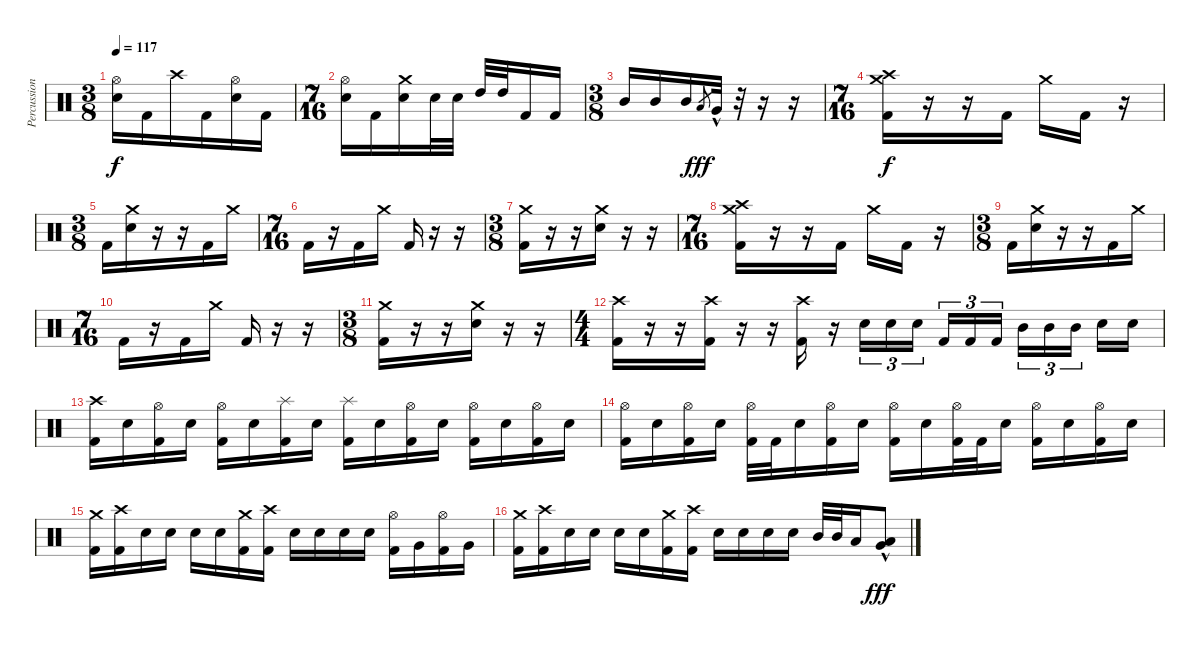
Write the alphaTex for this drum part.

\track ("Percussion" "Percussion") {instrument percussion}
\staff {score}
\articulation defaults
\ts (3 8)
\tempo 117
\clef neutral
\ks c
("Hi-Hat (open)" "Electric Snare (hit)").16{dy f} "Kick (hit) 2".16 "Crash high (hit)".16 "Kick (hit) 2".16 ("Hi-Hat (open)" "Electric Snare (hit)").16 "Kick (hit) 2".16 |
\ts (7 16)
("Hi-Hat (open)" "Electric Snare (hit)").16 "Kick (hit) 2".16 ("Crash medium (hit)" "Electric Snare (hit)").16 "Electric Snare (hit)".32 "Electric Snare (hit)".32 "High Tom (hit)".32 "High Tom (hit)".32 "Kick (hit) 2".16 "Kick (hit) 2".16 |
\ts (3 8)
"Mid Tom (hit)".16 "Mid Tom (hit)".16 "Mid Tom (hit)".16 "Low Tom (hit)".8{gr dy fff} "Very Low Tom (hit)"{hac}.32 r.32 r.16 r.16 |
\ts (7 16)
("Crash medium (hit)" "Crash high (hit)" "Kick (hit) 2").16{dy f} r.16 r.16 "Kick (hit) 2".16 "Crash medium (hit)".16 "Kick (hit) 2".16 r.16 |
\ts (3 8)
"Kick (hit) 2".16 ("Crash medium (hit)" "Electric Snare (hit)").16 r.16 r.16 "Kick (hit) 2".16 "Crash medium (hit)".16 |
\ts (7 16)
"Kick (hit) 2".16 r.16 "Kick (hit) 2".16 "Crash medium (hit)".16 "Kick (hit) 2".16 r.16 r.16 |
\ts (3 8)
("Crash medium (hit)" "Kick (hit) 2").16 r.16 r.16 ("Crash medium (hit)" "Electric Snare (hit)").16 r.16 r.16 |
\ts (7 16)
("Crash medium (hit)" "Crash high (hit)" "Kick (hit) 2").16 r.16 r.16 "Kick (hit) 2".16 "Crash medium (hit)".16 "Kick (hit) 2".16 r.16 |
\ts (3 8)
"Kick (hit) 2".16 ("Crash medium (hit)" "Electric Snare (hit)").16 r.16 r.16 "Kick (hit) 2".16 "Crash medium (hit)".16 |
\ts (7 16)
"Kick (hit) 2".16 r.16 "Kick (hit) 2".16 "Crash medium (hit)".16 "Kick (hit) 2".16 r.16 r.16 |
\ts (3 8)
("Crash medium (hit)" "Kick (hit) 2").16 r.16 r.16 ("Crash medium (hit)" "Electric Snare (hit)").16 r.16 r.16 |
\ts (4 4)
("Crash high (hit)" "Kick (hit) 2").16 r.16{volume 0} r.16 ("Crash high (hit)" "Kick (hit) 2").16{volume 13} r.16{volume 0} r.16 ("Crash high (hit)" "Kick (hit) 2").16{volume 13} r.16{volume 0} "Electric Snare (hit)".16{tu (3 2) volume 13} "Electric Snare (hit)".16{tu (3 2)} "Electric Snare (hit)".16{tu (3 2) beam splitsecondary} "Kick (hit) 2".16{tu (3 2)} "Kick (hit) 2".16{tu (3 2)} "Kick (hit) 2".16{tu (3 2)} "Mid Tom (hit)".16{tu (3 2)} "Mid Tom (hit)".16{tu (3 2)} "Mid Tom (hit)".16{tu (3 2) beam splitsecondary} "Electric Snare (hit)".16 "Electric Snare (hit)".16 |
("Crash high (hit)" "Kick (hit) 2").16{volume 13} "Electric Snare (hit)".16 ("Hi-Hat (open)" "Kick (hit) 2").16 "Electric Snare (hit)".16 ("Hi-Hat (open)" "Kick (hit) 2").16 "Electric Snare (hit)".16 ("Splash (hit)" "Kick (hit) 2").16 "Electric Snare (hit)".16 ("Splash (hit)" "Kick (hit) 2").16 "Electric Snare (hit)".16 ("Hi-Hat (open)" "Kick (hit) 2").16 "Electric Snare (hit)".16 ("Hi-Hat (open)" "Kick (hit) 2").16 "Electric Snare (hit)".16 ("Hi-Hat (open)" "Kick (hit) 2").16 "Electric Snare (hit)".16 |
("Hi-Hat (open)" "Kick (hit) 2").16 "Electric Snare (hit)".16 ("Hi-Hat (open)" "Kick (hit) 2").16 "Electric Snare (hit)".16 ("Hi-Hat (open)" "Kick (hit) 2").32 "Kick (hit) 2".32 "Electric Snare (hit)".16 ("Hi-Hat (open)" "Kick (hit) 2").16 "Electric Snare (hit)".16 ("Hi-Hat (open)" "Kick (hit) 2").16 "Electric Snare (hit)".16 ("Hi-Hat (open)" "Kick (hit) 2").32 "Kick (hit) 2".32 "Electric Snare (hit)".16 ("Hi-Hat (open)" "Kick (hit) 2").16 "Electric Snare (hit)".16 ("Hi-Hat (open)" "Kick (hit) 2").16 "Electric Snare (hit)".16 |
("Crash medium (hit)" "Kick (hit) 2").16 ("Crash high (hit)" "Kick (hit) 2").16 "Electric Snare (hit)".16 "Electric Snare (hit)".16 "Electric Snare (hit)".16 "Electric Snare (hit)".16 ("Crash medium (hit)" "Kick (hit) 2").16 ("Crash high (hit)" "Kick (hit) 2").16 "Electric Snare (hit)".16 "Electric Snare (hit)".16 "Electric Snare (hit)".16 "Electric Snare (hit)".16 ("Hi-Hat (open)" "Kick (hit) 2").16 "Very Low Tom (hit)".16 ("Hi-Hat (open)" "Kick (hit) 2").16 "Very Low Tom (hit)".16 |
("Crash medium (hit)" "Kick (hit) 2").16 ("Crash high (hit)" "Kick (hit) 2").16 "Electric Snare (hit)".16 "Electric Snare (hit)".16 "Electric Snare (hit)".16 "Electric Snare (hit)".16 ("Crash medium (hit)" "Kick (hit) 2").16 ("Crash high (hit)" "Kick (hit) 2").16 "Electric Snare (hit)".16 "Electric Snare (hit)".16 "Electric Snare (hit)".16 "Electric Snare (hit)".16 "Mid Tom (hit)".32 "Mid Tom (hit)".32 "Low Tom (hit)".16 ("Low Tom (hit)"{hac} "Very Low Tom (hit)"{hac}).8{dy fff}
